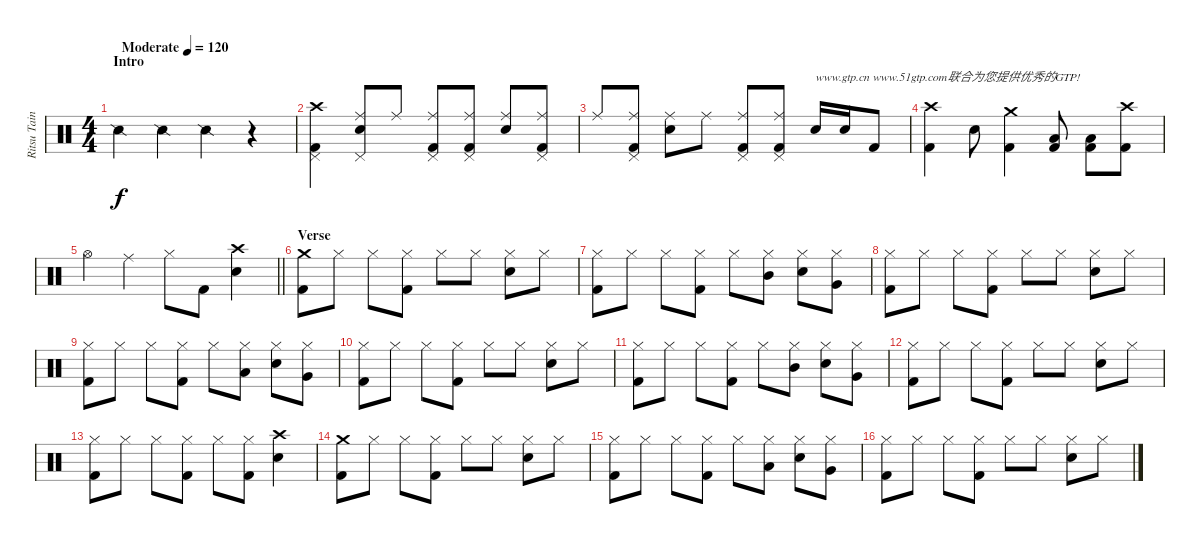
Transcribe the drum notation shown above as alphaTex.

\track ("Ritsu Tainaka" "Ritsu Tain") {instrument percussion}
\staff {score}
\articulation defaults
\ts (4 4)
\section ("" "Intro")
\tempo (120 "Moderate")
\clef neutral
\ks c "Snare (side stick) 2".4{dy f} "Snare (side stick) 2".4 "Snare (side stick) 2".4
r.4 |
("Crash high (hit)" "Pedal Hi-Hat (hit)" "Kick (hit) 2").4 ("Ride (middle)" "Pedal Hi-Hat (hit)" "Snare (hit) 2").8 "Ride (middle)".8 ("Ride (middle)" "Pedal Hi-Hat (hit)" "Kick (hit) 2").8 ("Ride (middle)" "Pedal Hi-Hat (hit)" "Kick (hit) 2").8 ("Ride (middle)" "Snare (hit) 2").8 ("Ride (middle)" "Pedal Hi-Hat (hit)" "Kick (hit) 2").8 |
"Ride (middle)".8 ("Ride (middle)" "Pedal Hi-Hat (hit)" "Kick (hit) 2").8 ("Ride (middle)" "Snare (hit) 2").8 "Ride (middle)".8 ("Ride (middle)" "Pedal Hi-Hat (hit)" "Kick (hit) 2").8 ("Ride (middle)" "Pedal Hi-Hat (hit)" "Kick (hit) 2").8 "Snare (hit) 2".16{txt "www.gtp.cn www.51gtp.com联合为您提供优秀的GTP!"} "Snare (hit) 2".16 "Kick (hit) 2".8 |
("Crash high (hit)" "Kick (hit) 2").4 "Snare (hit) 2".8 ("Crash medium (hit)" "Kick (hit) 2").4 ("Low Tom (hit)" "Kick (hit) 2").8 ("Low Tom (hit)" "Kick (hit) 2").8 ("Crash high (hit)" "Kick (hit) 2").8 |
\barLineRight lightlight "Hi-Hat (open)".4 "Ride (middle)".4 "Hi-Hat (closed)".8 "Kick (hit) 2".8
("Crash high (hit)" "Snare (hit) 2").4 |
\section ("" "Verse")
("Crash medium (hit)" "Kick (hit) 2").8 "Hi-Hat (closed)".8 "Hi-Hat (closed)".8 ("Hi-Hat (closed)" "Kick (hit) 2").8 "Hi-Hat (closed)".8 "Hi-Hat (closed)".8 ("Hi-Hat (closed)" "Snare (hit) 2").8 "Hi-Hat (closed)".8 |
("Hi-Hat (closed)" "Kick (hit) 2").8 "Hi-Hat (closed)".8 "Hi-Hat (closed)".8 ("Hi-Hat (closed)" "Kick (hit) 2").8 "Hi-Hat (closed)".8 ("Mid Tom (hit)" "Hi-Hat (closed)").8 ("Hi-Hat (closed)" "Snare (hit) 2").8 ("Very Low Tom (hit)" "Hi-Hat (closed)").8 |
("Hi-Hat (closed)" "Kick (hit) 2").8 "Hi-Hat (closed)".8 "Hi-Hat (closed)".8 ("Hi-Hat (closed)" "Kick (hit) 2").8 "Hi-Hat (closed)".8 "Hi-Hat (closed)".8 ("Hi-Hat (closed)" "Snare (hit) 2").8 "Hi-Hat (closed)".8 |
("Hi-Hat (closed)" "Kick (hit) 2").8 "Hi-Hat (closed)".8 "Hi-Hat (closed)".8 ("Hi-Hat (closed)" "Kick (hit) 2").8 "Hi-Hat (closed)".8 ("Low Tom (hit)" "Hi-Hat (closed)").8 ("Hi-Hat (closed)" "Snare (hit) 2").8 ("Very Low Tom (hit)" "Hi-Hat (closed)").8 |
("Hi-Hat (closed)" "Kick (hit) 2").8 "Hi-Hat (closed)".8 "Hi-Hat (closed)".8 ("Hi-Hat (closed)" "Kick (hit) 2").8 "Hi-Hat (closed)".8 "Hi-Hat (closed)".8 ("Hi-Hat (closed)" "Snare (hit) 2").8 "Hi-Hat (closed)".8 |
("Hi-Hat (closed)" "Kick (hit) 2").8 "Hi-Hat (closed)".8 "Hi-Hat (closed)".8 ("Hi-Hat (closed)" "Kick (hit) 2").8 "Hi-Hat (closed)".8 ("Mid Tom (hit)" "Hi-Hat (closed)").8 ("Hi-Hat (closed)" "Snare (hit) 2").8 ("Very Low Tom (hit)" "Hi-Hat (closed)").8 |
("Hi-Hat (closed)" "Kick (hit) 2").8 "Hi-Hat (closed)".8 "Hi-Hat (closed)".8 ("Hi-Hat (closed)" "Kick (hit) 2").8 "Hi-Hat (closed)".8 "Hi-Hat (closed)".8 ("Hi-Hat (closed)" "Snare (hit) 2").8 "Hi-Hat (closed)".8 |
("Hi-Hat (closed)" "Kick (hit) 2").8 "Hi-Hat (closed)".8 "Hi-Hat (closed)".8 ("Hi-Hat (closed)" "Kick (hit) 2").8 "Hi-Hat (closed)".8 ("Hi-Hat (closed)" "Kick (hit) 2").8 ("Crash high (hit)" "Snare (hit) 2").4 |
("Crash medium (hit)" "Kick (hit) 2").8 "Hi-Hat (closed)".8 "Hi-Hat (closed)".8 ("Hi-Hat (closed)" "Kick (hit) 2").8 "Hi-Hat (closed)".8 "Hi-Hat (closed)".8 ("Hi-Hat (closed)" "Snare (hit) 2").8 "Hi-Hat (closed)".8 |
("Hi-Hat (closed)" "Kick (hit) 2").8 "Hi-Hat (closed)".8 "Hi-Hat (closed)".8 ("Hi-Hat (closed)" "Kick (hit) 2").8 "Hi-Hat (closed)".8 ("Low Tom (hit)" "Hi-Hat (closed)").8 ("Hi-Hat (closed)" "Snare (hit) 2").8 ("Very Low Tom (hit)" "Hi-Hat (closed)").8 |
("Hi-Hat (closed)" "Kick (hit) 2").8 "Hi-Hat (closed)".8 "Hi-Hat (closed)".8 ("Hi-Hat (closed)" "Kick (hit) 2").8 "Hi-Hat (closed)".8 "Hi-Hat (closed)".8 ("Hi-Hat (closed)" "Snare (hit) 2").8 "Hi-Hat (closed)".8
